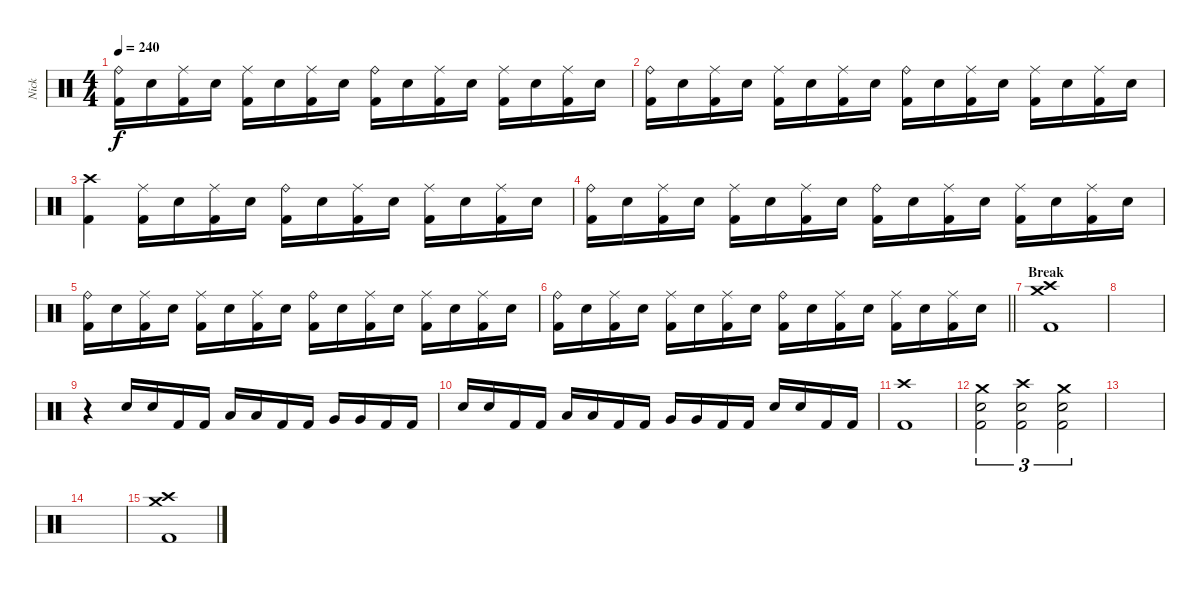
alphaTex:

\track ("Nick" "Nick") {instrument percussion}
\staff {score}
\articulation defaults
\ts (4 4)
\tempo 240
\clef neutral
\ks c
("Ride (bell)" "Kick (hit) 2").16{dy f} "Electric Snare (hit)".16 ("Ride (middle)" "Kick (hit) 2").16 "Electric Snare (hit)".16 ("Ride (middle)" "Kick (hit) 2").16 "Electric Snare (hit)".16 ("Ride (middle)" "Kick (hit) 2").16 "Electric Snare (hit)".16 ("Ride (bell)" "Kick (hit) 2").16 "Electric Snare (hit)".16 ("Ride (middle)" "Kick (hit) 2").16 "Electric Snare (hit)".16 ("Ride (middle)" "Kick (hit) 2").16 "Electric Snare (hit)".16 ("Ride (middle)" "Kick (hit) 2").16 "Electric Snare (hit)".16 |
("Ride (bell)" "Kick (hit) 2").16 "Electric Snare (hit)".16 ("Ride (middle)" "Kick (hit) 2").16 "Electric Snare (hit)".16 ("Ride (middle)" "Kick (hit) 2").16 "Electric Snare (hit)".16 ("Ride (middle)" "Kick (hit) 2").16 "Electric Snare (hit)".16 ("Ride (bell)" "Kick (hit) 2").16 "Electric Snare (hit)".16 ("Ride (middle)" "Kick (hit) 2").16 "Electric Snare (hit)".16 ("Ride (middle)" "Kick (hit) 2").16 "Electric Snare (hit)".16 ("Ride (middle)" "Kick (hit) 2").16 "Electric Snare (hit)".16 |
("Crash high (hit)" "Kick (hit) 2").4 ("Ride (middle)" "Kick (hit) 2").16 "Electric Snare (hit)".16 ("Ride (middle)" "Kick (hit) 2").16 "Electric Snare (hit)".16 ("Ride (bell)" "Kick (hit) 2").16 "Electric Snare (hit)".16 ("Ride (middle)" "Kick (hit) 2").16 "Electric Snare (hit)".16 ("Ride (middle)" "Kick (hit) 2").16 "Electric Snare (hit)".16 ("Ride (middle)" "Kick (hit) 2").16 "Electric Snare (hit)".16 |
("Ride (bell)" "Kick (hit) 2").16 "Electric Snare (hit)".16 ("Ride (middle)" "Kick (hit) 2").16 "Electric Snare (hit)".16 ("Ride (middle)" "Kick (hit) 2").16 "Electric Snare (hit)".16 ("Ride (middle)" "Kick (hit) 2").16 "Electric Snare (hit)".16 ("Ride (bell)" "Kick (hit) 2").16 "Electric Snare (hit)".16 ("Ride (middle)" "Kick (hit) 2").16 "Electric Snare (hit)".16 ("Ride (middle)" "Kick (hit) 2").16 "Electric Snare (hit)".16 ("Ride (middle)" "Kick (hit) 2").16 "Electric Snare (hit)".16 |
("Ride (bell)" "Kick (hit) 2").16 "Electric Snare (hit)".16 ("Ride (middle)" "Kick (hit) 2").16 "Electric Snare (hit)".16 ("Ride (middle)" "Kick (hit) 2").16 "Electric Snare (hit)".16 ("Ride (middle)" "Kick (hit) 2").16 "Electric Snare (hit)".16 ("Ride (bell)" "Kick (hit) 2").16 "Electric Snare (hit)".16 ("Ride (middle)" "Kick (hit) 2").16 "Electric Snare (hit)".16 ("Ride (middle)" "Kick (hit) 2").16 "Electric Snare (hit)".16 ("Ride (middle)" "Kick (hit) 2").16 "Electric Snare (hit)".16 |
\barLineRight lightlight
("Ride (bell)" "Kick (hit) 2").16 "Electric Snare (hit)".16 ("Ride (middle)" "Kick (hit) 2").16 "Electric Snare (hit)".16 ("Ride (middle)" "Kick (hit) 2").16 "Electric Snare (hit)".16 ("Ride (middle)" "Kick (hit) 2").16 "Electric Snare (hit)".16 ("Ride (bell)" "Kick (hit) 2").16 "Electric Snare (hit)".16 ("Ride (middle)" "Kick (hit) 2").16 "Electric Snare (hit)".16 ("Ride (middle)" "Kick (hit) 2").16 "Electric Snare (hit)".16 ("Ride (middle)" "Kick (hit) 2").16 "Electric Snare (hit)".16 |
\section ("" "Break")
("Crash medium (hit)" "Crash high (hit)" "Kick (hit) 2").1 |
|
r.4 "Electric Snare (hit)".16 "Electric Snare (hit)".16 "Kick (hit) 2".16 "Kick (hit) 2".16 "Low Tom (hit)".16 "Low Tom (hit)".16 "Kick (hit) 2".16 "Kick (hit) 2".16 "Very Low Tom (hit)".16 "Very Low Tom (hit)".16 "Kick (hit) 2".16 "Kick (hit) 2".16 |
"Electric Snare (hit)".16 "Electric Snare (hit)".16 "Kick (hit) 2".16 "Kick (hit) 2".16 "Low Tom (hit)".16 "Low Tom (hit)".16 "Kick (hit) 2".16 "Kick (hit) 2".16 "Very Low Tom (hit)".16 "Very Low Tom (hit)".16 "Kick (hit) 2".16 "Kick (hit) 2".16 "Electric Snare (hit)".16 "Electric Snare (hit)".16 "Kick (hit) 2".16 "Kick (hit) 2".16 |
("Crash high (hit)" "Kick (hit) 2").1 |
("Crash medium (hit)" "Electric Snare (hit)" "Kick (hit) 2").2{tu (3 2)} ("Crash high (hit)" "Electric Snare (hit)" "Kick (hit) 2").2{tu (3 2)} ("Crash medium (hit)" "Electric Snare (hit)" "Kick (hit) 2").2{tu (3 2)} |
|
|
("Crash medium (hit)" "Crash high (hit)" "Kick (hit) 2").1
